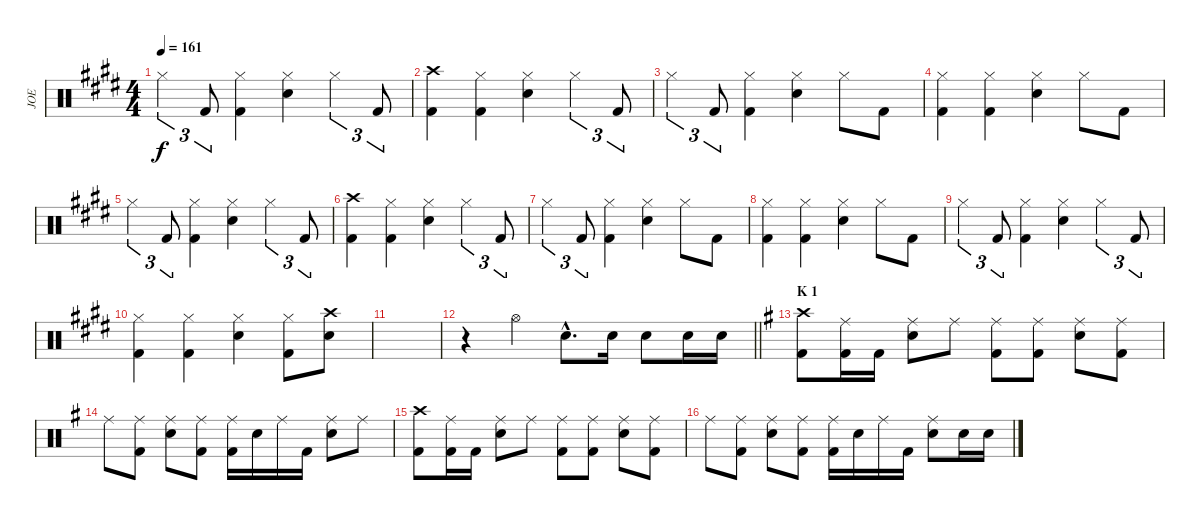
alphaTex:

\track ("JOE" "JOE") {instrument percussion}
\staff {score}
\articulation defaults
\ts (4 4)
\tempo 161
\clef neutral
\ks e "Hi-Hat (closed)".4{tu (3 2) dy f} "Kick (hit) 2".8{tu (3 2)}
("Hi-Hat (closed)" "Kick (hit) 2").4 ("Hi-Hat (closed)" "Snare (hit) 2").4 "Hi-Hat (closed)".4{tu (3 2)} "Kick (hit) 2".8{tu (3 2)} |
("Crash high (hit)" "Kick (hit) 2").4 ("Hi-Hat (closed)" "Kick (hit) 2").4 ("Hi-Hat (closed)" "Snare (hit) 2").4 "Hi-Hat (closed)".4{tu (3 2)} "Kick (hit) 2".8{tu (3 2)} |
"Hi-Hat (closed)".4{tu (3 2)} "Kick (hit) 2".8{tu (3 2)} ("Hi-Hat (closed)" "Kick (hit) 2").4 ("Hi-Hat (closed)" "Snare (hit) 2").4 "Hi-Hat (closed)".8 "Kick (hit) 2".8 |
("Hi-Hat (closed)" "Kick (hit) 2").4 ("Hi-Hat (closed)" "Kick (hit) 2").4 ("Hi-Hat (closed)" "Snare (hit) 2").4 "Hi-Hat (closed)".8 "Kick (hit) 2".8 |
"Hi-Hat (closed)".4{tu (3 2)} "Kick (hit) 2".8{tu (3 2)} ("Hi-Hat (closed)" "Kick (hit) 2").4 ("Hi-Hat (closed)" "Snare (hit) 2").4 "Hi-Hat (closed)".4{tu (3 2)} "Kick (hit) 2".8{tu (3 2)} |
("Crash high (hit)" "Kick (hit) 2").4 ("Hi-Hat (closed)" "Kick (hit) 2").4 ("Hi-Hat (closed)" "Snare (hit) 2").4 "Hi-Hat (closed)".4{tu (3 2)} "Kick (hit) 2".8{tu (3 2)} |
"Hi-Hat (closed)".4{tu (3 2)} "Kick (hit) 2".8{tu (3 2)} ("Hi-Hat (closed)" "Kick (hit) 2").4 ("Hi-Hat (closed)" "Snare (hit) 2").4 "Hi-Hat (closed)".8 "Kick (hit) 2".8 |
("Hi-Hat (closed)" "Kick (hit) 2").4 ("Hi-Hat (closed)" "Kick (hit) 2").4 ("Hi-Hat (closed)" "Snare (hit) 2").4 "Hi-Hat (closed)".8 "Kick (hit) 2".8 |
"Hi-Hat (closed)".4{tu (3 2)} "Kick (hit) 2".8{tu (3 2)} ("Hi-Hat (closed)" "Kick (hit) 2").4 ("Hi-Hat (closed)" "Snare (hit) 2").4 "Hi-Hat (closed)".4{tu (3 2)} "Kick (hit) 2".8{tu (3 2)} |
("Hi-Hat (closed)" "Kick (hit) 2").4 ("Hi-Hat (closed)" "Kick (hit) 2").4 ("Hi-Hat (closed)" "Snare (hit) 2").4 ("Hi-Hat (closed)" "Kick (hit) 2").8 ("Crash high (hit)" "Snare (hit) 2").8 |
|
\barLineRight lightlight
r.4 "Hi-Hat (open)".4 "Snare (hit) 2"{hac}.8{d} "Snare (hit) 2".16 "Snare (hit) 2".8 "Snare (hit) 2".16 "Snare (hit) 2".16 |
\section ("" "K 1")
\ks g
("Crash high (hit)" "Kick (hit) 2").8 ("Ride (middle)" "Kick (hit) 2").16 "Kick (hit) 2".16 ("Ride (middle)" "Snare (hit) 2").8 "Ride (middle)".8 ("Ride (middle)" "Kick (hit) 2").8 ("Ride (middle)" "Kick (hit) 2").8 ("Ride (middle)" "Snare (hit) 2").8 ("Ride (middle)" "Kick (hit) 2").8 |
"Ride (middle)".8 ("Ride (middle)" "Kick (hit) 2").8 ("Ride (middle)" "Snare (hit) 2").8 ("Ride (middle)" "Kick (hit) 2").8 ("Ride (middle)" "Kick (hit) 2").16 "Snare (hit) 2".16 "Ride (middle)".16 "Kick (hit) 2".16 ("Ride (middle)" "Snare (hit) 2").8 "Ride (middle)".8 |
("Crash high (hit)" "Kick (hit) 2").8 ("Ride (middle)" "Kick (hit) 2").16 "Kick (hit) 2".16 ("Ride (middle)" "Snare (hit) 2").8 "Ride (middle)".8 ("Ride (middle)" "Kick (hit) 2").8 ("Ride (middle)" "Kick (hit) 2").8 ("Ride (middle)" "Snare (hit) 2").8 ("Ride (middle)" "Kick (hit) 2").8 |
"Ride (middle)".8 ("Ride (middle)" "Kick (hit) 2").8 ("Ride (middle)" "Snare (hit) 2").8 ("Ride (middle)" "Kick (hit) 2").8 ("Ride (middle)" "Kick (hit) 2").16 "Snare (hit) 2".16 "Ride (middle)".16 "Kick (hit) 2".16 ("Ride (middle)" "Snare (hit) 2").8 "Snare (hit) 2".16 "Snare (hit) 2".16
